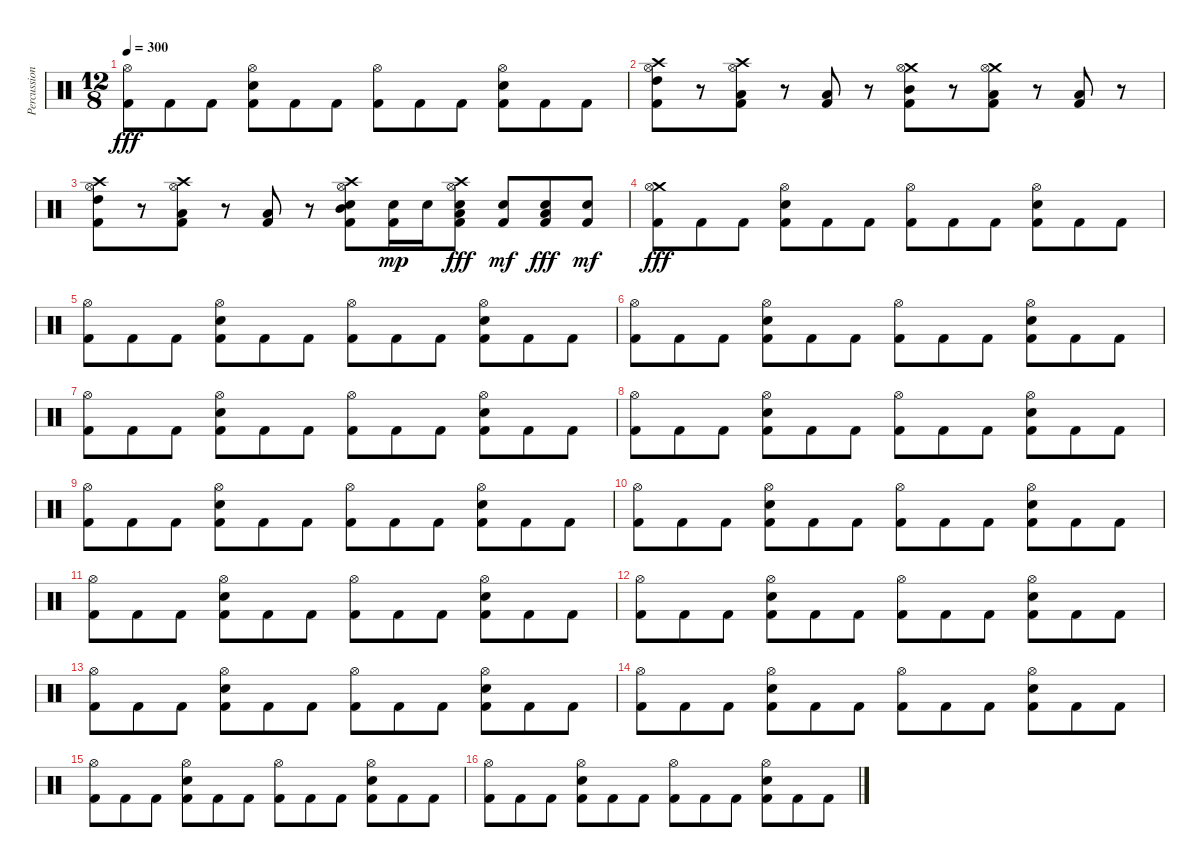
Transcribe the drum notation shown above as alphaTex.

\track ("Percussion" "Percussion") {instrument percussion}
\staff {score}
\articulation defaults
\ts (12 8)
\tempo 300
\clef neutral
\ks c
("Hi-Hat (open)" "Kick (hit) 2").8{dy fff} "Kick (hit) 2".8 "Kick (hit) 2".8 ("Hi-Hat (open)" "Snare (hit) 2" "Kick (hit) 2").8 "Kick (hit) 2".8 "Kick (hit) 2".8 ("Hi-Hat (open)" "Kick (hit) 2").8 "Kick (hit) 2".8 "Kick (hit) 2".8 ("Hi-Hat (open)" "Snare (hit) 2" "Kick (hit) 2").8 "Kick (hit) 2".8 "Kick (hit) 2".8 |
("Crash high (hit)" "Hi-Hat (open)" "High Tom (hit)" "Kick (hit) 2").8 r.8 ("Crash high (hit)" "Hi-Hat (open)" "Low Tom (hit)" "Kick (hit) 2").8 r.8 ("Low Tom (hit)" "Kick (hit) 2").8 r.8 ("Crash medium (hit)" "Hi-Hat (open)" "Mid Tom (hit)" "Kick (hit) 2").8 r.8 ("Crash medium (hit)" "Hi-Hat (open)" "Low Tom (hit)" "Kick (hit) 2").8 r.8 ("Low Tom (hit)" "Kick (hit) 2").8 r.8 |
("Crash high (hit)" "Hi-Hat (open)" "High Tom (hit)" "Kick (hit) 2").8 r.8 ("Crash high (hit)" "Hi-Hat (open)" "Low Tom (hit)" "Kick (hit) 2").8 r.8 ("Low Tom (hit)" "Kick (hit) 2").8 r.8 ("Crash high (hit)" "Snare (hit) 2" "Hi-Hat (open)" "Mid Tom (hit)" "Kick (hit) 2").8 ("Snare (hit) 2" "Kick (hit) 2").16{dy mp} "Snare (hit) 2".16 ("Crash high (hit)" "Snare (hit) 2" "Hi-Hat (open)" "Low Tom (hit)" "Kick (hit) 2").8{dy fff} ("Snare (hit) 2" "Kick (hit) 2").8{dy mf} ("Snare (hit) 2" "Low Tom (hit)" "Kick (hit) 2").8{dy fff} ("Snare (hit) 2" "Kick (hit) 2").8{dy mf} |
("Crash medium (hit)" "Hi-Hat (open)" "Kick (hit) 2").8{dy fff} "Kick (hit) 2".8 "Kick (hit) 2".8 ("Hi-Hat (open)" "Snare (hit) 2" "Kick (hit) 2").8 "Kick (hit) 2".8 "Kick (hit) 2".8 ("Hi-Hat (open)" "Kick (hit) 2").8 "Kick (hit) 2".8 "Kick (hit) 2".8 ("Hi-Hat (open)" "Snare (hit) 2" "Kick (hit) 2").8 "Kick (hit) 2".8 "Kick (hit) 2".8 |
("Hi-Hat (open)" "Kick (hit) 2").8 "Kick (hit) 2".8 "Kick (hit) 2".8 ("Hi-Hat (open)" "Snare (hit) 2" "Kick (hit) 2").8 "Kick (hit) 2".8 "Kick (hit) 2".8 ("Hi-Hat (open)" "Kick (hit) 2").8 "Kick (hit) 2".8 "Kick (hit) 2".8 ("Hi-Hat (open)" "Snare (hit) 2" "Kick (hit) 2").8 "Kick (hit) 2".8 "Kick (hit) 2".8 |
("Hi-Hat (open)" "Kick (hit) 2").8 "Kick (hit) 2".8 "Kick (hit) 2".8 ("Hi-Hat (open)" "Snare (hit) 2" "Kick (hit) 2").8 "Kick (hit) 2".8 "Kick (hit) 2".8 ("Hi-Hat (open)" "Kick (hit) 2").8 "Kick (hit) 2".8 "Kick (hit) 2".8 ("Hi-Hat (open)" "Snare (hit) 2" "Kick (hit) 2").8 "Kick (hit) 2".8 "Kick (hit) 2".8 |
("Hi-Hat (open)" "Kick (hit) 2").8 "Kick (hit) 2".8 "Kick (hit) 2".8 ("Hi-Hat (open)" "Snare (hit) 2" "Kick (hit) 2").8 "Kick (hit) 2".8 "Kick (hit) 2".8 ("Hi-Hat (open)" "Kick (hit) 2").8 "Kick (hit) 2".8 "Kick (hit) 2".8 ("Hi-Hat (open)" "Snare (hit) 2" "Kick (hit) 2").8 "Kick (hit) 2".8 "Kick (hit) 2".8 |
("Hi-Hat (open)" "Kick (hit) 2").8 "Kick (hit) 2".8 "Kick (hit) 2".8 ("Hi-Hat (open)" "Snare (hit) 2" "Kick (hit) 2").8 "Kick (hit) 2".8 "Kick (hit) 2".8 ("Hi-Hat (open)" "Kick (hit) 2").8 "Kick (hit) 2".8 "Kick (hit) 2".8 ("Hi-Hat (open)" "Snare (hit) 2" "Kick (hit) 2").8 "Kick (hit) 2".8 "Kick (hit) 2".8 |
("Hi-Hat (open)" "Kick (hit) 2").8 "Kick (hit) 2".8 "Kick (hit) 2".8 ("Hi-Hat (open)" "Snare (hit) 2" "Kick (hit) 2").8 "Kick (hit) 2".8 "Kick (hit) 2".8 ("Hi-Hat (open)" "Kick (hit) 2").8 "Kick (hit) 2".8 "Kick (hit) 2".8 ("Hi-Hat (open)" "Snare (hit) 2" "Kick (hit) 2").8 "Kick (hit) 2".8 "Kick (hit) 2".8 |
("Hi-Hat (open)" "Kick (hit) 2").8 "Kick (hit) 2".8 "Kick (hit) 2".8 ("Hi-Hat (open)" "Snare (hit) 2" "Kick (hit) 2").8 "Kick (hit) 2".8 "Kick (hit) 2".8 ("Hi-Hat (open)" "Kick (hit) 2").8 "Kick (hit) 2".8 "Kick (hit) 2".8 ("Hi-Hat (open)" "Snare (hit) 2" "Kick (hit) 2").8 "Kick (hit) 2".8 "Kick (hit) 2".8 |
("Hi-Hat (open)" "Kick (hit) 2").8 "Kick (hit) 2".8 "Kick (hit) 2".8 ("Hi-Hat (open)" "Snare (hit) 2" "Kick (hit) 2").8 "Kick (hit) 2".8 "Kick (hit) 2".8 ("Hi-Hat (open)" "Kick (hit) 2").8 "Kick (hit) 2".8 "Kick (hit) 2".8 ("Hi-Hat (open)" "Snare (hit) 2" "Kick (hit) 2").8 "Kick (hit) 2".8 "Kick (hit) 2".8 |
("Hi-Hat (open)" "Kick (hit) 2").8 "Kick (hit) 2".8 "Kick (hit) 2".8 ("Hi-Hat (open)" "Snare (hit) 2" "Kick (hit) 2").8 "Kick (hit) 2".8 "Kick (hit) 2".8 ("Hi-Hat (open)" "Kick (hit) 2").8 "Kick (hit) 2".8 "Kick (hit) 2".8 ("Hi-Hat (open)" "Snare (hit) 2" "Kick (hit) 2").8 "Kick (hit) 2".8 "Kick (hit) 2".8 |
("Hi-Hat (open)" "Kick (hit) 2").8 "Kick (hit) 2".8 "Kick (hit) 2".8 ("Hi-Hat (open)" "Snare (hit) 2" "Kick (hit) 2").8 "Kick (hit) 2".8 "Kick (hit) 2".8 ("Hi-Hat (open)" "Kick (hit) 2").8 "Kick (hit) 2".8 "Kick (hit) 2".8 ("Hi-Hat (open)" "Snare (hit) 2" "Kick (hit) 2").8 "Kick (hit) 2".8 "Kick (hit) 2".8 |
("Hi-Hat (open)" "Kick (hit) 2").8 "Kick (hit) 2".8 "Kick (hit) 2".8 ("Hi-Hat (open)" "Snare (hit) 2" "Kick (hit) 2").8 "Kick (hit) 2".8 "Kick (hit) 2".8 ("Hi-Hat (open)" "Kick (hit) 2").8 "Kick (hit) 2".8 "Kick (hit) 2".8 ("Hi-Hat (open)" "Snare (hit) 2" "Kick (hit) 2").8 "Kick (hit) 2".8 "Kick (hit) 2".8 |
("Hi-Hat (open)" "Kick (hit) 2").8 "Kick (hit) 2".8 "Kick (hit) 2".8 ("Hi-Hat (open)" "Snare (hit) 2" "Kick (hit) 2").8 "Kick (hit) 2".8 "Kick (hit) 2".8 ("Hi-Hat (open)" "Kick (hit) 2").8 "Kick (hit) 2".8 "Kick (hit) 2".8 ("Hi-Hat (open)" "Snare (hit) 2" "Kick (hit) 2").8 "Kick (hit) 2".8 "Kick (hit) 2".8 |
("Hi-Hat (open)" "Kick (hit) 2").8 "Kick (hit) 2".8 "Kick (hit) 2".8 ("Hi-Hat (open)" "Snare (hit) 2" "Kick (hit) 2").8 "Kick (hit) 2".8 "Kick (hit) 2".8 ("Hi-Hat (open)" "Kick (hit) 2").8 "Kick (hit) 2".8 "Kick (hit) 2".8 ("Hi-Hat (open)" "Snare (hit) 2" "Kick (hit) 2").8 "Kick (hit) 2".8 "Kick (hit) 2".8
